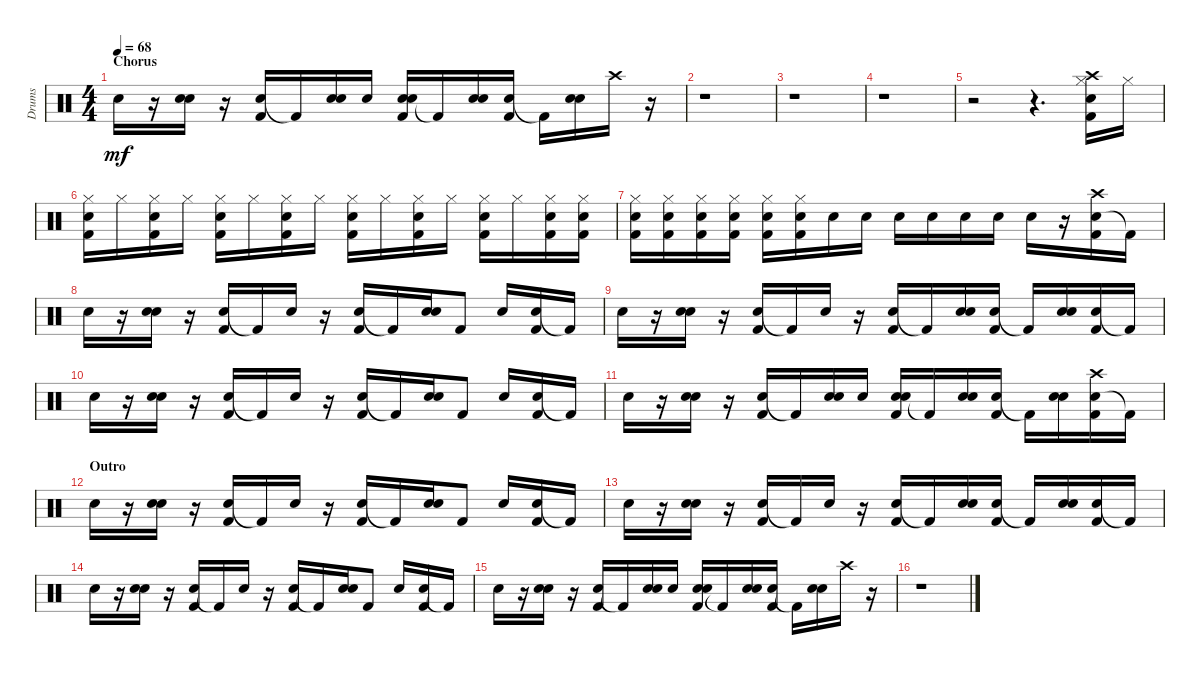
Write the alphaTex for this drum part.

\track ("Drums" "Drums") {instrument percussion}
\staff {score}
\articulation defaults
\ts (4 4)
\section ("" "Chorus")
\tempo 68
\clef neutral
\ks aminor "Hand Clap (hit)".16{dy mf}
r.16 ("Hand Clap (hit)" "Electric Snare (hit)").16 r.16 ("Hand Clap (hit)" "Kick (hit) 2").16 "Kick (hit) 2"{t}.16 ("Hand Clap (hit)" "Electric Snare (hit)").16 "Electric Snare (hit)".16 ("Hand Clap (hit)" "Electric Snare (hit)" "Kick (hit) 2").16 "Kick (hit) 2"{t}.16 ("Electric Snare (hit)" "Hand Clap (hit)").16 ("Electric Snare (hit)" "Kick (hit) 2").16 "Kick (hit) 2"{t}.16 ("Hand Clap (hit)" "Electric Snare (hit)").16 "Crash high (hit)".16 r.16 |
r.1 |
r.1 |
r.1 |
r.2 r.4{d} ("Kick (hit) 2" "Hand Clap (hit)" "Hi-Hat (closed)" "Crash high (hit)").16 "Hi-Hat (closed)".16 |
("Kick (hit) 2" "Hand Clap (hit)" "Hi-Hat (closed)").16 "Hi-Hat (closed)".16 ("Kick (hit) 2" "Hand Clap (hit)" "Hi-Hat (closed)").16 "Hi-Hat (closed)".16 ("Kick (hit) 2" "Hand Clap (hit)" "Hi-Hat (closed)").16 "Hi-Hat (closed)".16 ("Kick (hit) 2" "Hand Clap (hit)" "Hi-Hat (closed)").16 "Hi-Hat (closed)".16 ("Kick (hit) 2" "Hand Clap (hit)" "Hi-Hat (closed)").16 "Hi-Hat (closed)".16 ("Kick (hit) 2" "Hand Clap (hit)" "Hi-Hat (closed)").16 "Hi-Hat (closed)".16 ("Kick (hit) 2" "Hand Clap (hit)" "Hi-Hat (closed)").16 "Hi-Hat (closed)".16 ("Kick (hit) 2" "Hand Clap (hit)" "Hi-Hat (closed)").16 ("Kick (hit) 2" "Hand Clap (hit)" "Hi-Hat (closed)").16 |
("Kick (hit) 2" "Hand Clap (hit)" "Hi-Hat (closed)").16 ("Kick (hit) 2" "Hand Clap (hit)" "Hi-Hat (closed)").16 ("Kick (hit) 2" "Hand Clap (hit)" "Hi-Hat (closed)").16 ("Kick (hit) 2" "Hand Clap (hit)" "Hi-Hat (closed)").16 ("Kick (hit) 2" "Hand Clap (hit)" "Hi-Hat (closed)").16 ("Kick (hit) 2" "Hand Clap (hit)" "Hi-Hat (closed)").16 "Electric Snare (hit)".16 "Electric Snare (hit)".16 "Electric Snare (hit)".16 "Electric Snare (hit)".16 "Electric Snare (hit)".16 "Electric Snare (hit)".16 "Electric Snare (hit)".16 r.16 ("Hand Clap (hit)" "Crash high (hit)" "Kick (hit) 2").16 "Kick (hit) 2"{t}.16 |
"Hand Clap (hit)".16 r.16 ("Hand Clap (hit)" "Electric Snare (hit)").16 r.16 ("Hand Clap (hit)" "Kick (hit) 2").16 "Kick (hit) 2"{t}.16 "Hand Clap (hit)".16 r.16 ("Hand Clap (hit)" "Kick (hit) 2").16 "Kick (hit) 2"{t}.16 ("Hand Clap (hit)" "Electric Snare (hit)").16 "Kick (hit) 2".8 "Hand Clap (hit)".16 ("Hand Clap (hit)" "Kick (hit) 2").16 "Kick (hit) 2"{t}.16 |
"Hand Clap (hit)".16 r.16 ("Hand Clap (hit)" "Electric Snare (hit)").16 r.16 ("Hand Clap (hit)" "Kick (hit) 2").16 "Kick (hit) 2"{t}.16 "Hand Clap (hit)".16 r.16 ("Hand Clap (hit)" "Kick (hit) 2").16 "Kick (hit) 2"{t}.16 ("Hand Clap (hit)" "Electric Snare (hit)").16 ("Electric Snare (hit)" "Kick (hit) 2").16 "Kick (hit) 2"{t}.16 ("Hand Clap (hit)" "Electric Snare (hit)").16 ("Hand Clap (hit)" "Kick (hit) 2").16 "Kick (hit) 2"{t}.16 |
"Hand Clap (hit)".16 r.16 ("Hand Clap (hit)" "Electric Snare (hit)").16 r.16 ("Hand Clap (hit)" "Kick (hit) 2").16 "Kick (hit) 2"{t}.16 "Hand Clap (hit)".16 r.16 ("Hand Clap (hit)" "Kick (hit) 2").16 "Kick (hit) 2"{t}.16 ("Hand Clap (hit)" "Electric Snare (hit)").16 "Kick (hit) 2".8 "Hand Clap (hit)".16 ("Hand Clap (hit)" "Kick (hit) 2").16 "Kick (hit) 2"{t}.16 |
"Hand Clap (hit)".16 r.16 ("Hand Clap (hit)" "Electric Snare (hit)").16 r.16 ("Hand Clap (hit)" "Kick (hit) 2").16 "Kick (hit) 2"{t}.16 ("Hand Clap (hit)" "Electric Snare (hit)").16 "Electric Snare (hit)".16 ("Hand Clap (hit)" "Electric Snare (hit)" "Kick (hit) 2").16 "Kick (hit) 2"{t}.16 ("Electric Snare (hit)" "Hand Clap (hit)").16 ("Electric Snare (hit)" "Kick (hit) 2").16 "Kick (hit) 2"{t}.16 ("Hand Clap (hit)" "Electric Snare (hit)").16 ("Hand Clap (hit)" "Crash high (hit)" "Kick (hit) 2").16 "Kick (hit) 2"{t}.16 |
\section ("" "Outro")
"Hand Clap (hit)".16 r.16 ("Hand Clap (hit)" "Electric Snare (hit)").16 r.16 ("Hand Clap (hit)" "Kick (hit) 2").16 "Kick (hit) 2"{t}.16 "Hand Clap (hit)".16 r.16 ("Hand Clap (hit)" "Kick (hit) 2").16 "Kick (hit) 2"{t}.16 ("Hand Clap (hit)" "Electric Snare (hit)").16 "Kick (hit) 2".8 "Hand Clap (hit)".16 ("Hand Clap (hit)" "Kick (hit) 2").16 "Kick (hit) 2"{t}.16 |
"Hand Clap (hit)".16 r.16 ("Hand Clap (hit)" "Electric Snare (hit)").16 r.16 ("Hand Clap (hit)" "Kick (hit) 2").16 "Kick (hit) 2"{t}.16 "Hand Clap (hit)".16 r.16 ("Hand Clap (hit)" "Kick (hit) 2").16 "Kick (hit) 2"{t}.16 ("Hand Clap (hit)" "Electric Snare (hit)").16 ("Electric Snare (hit)" "Kick (hit) 2").16 "Kick (hit) 2"{t}.16 ("Hand Clap (hit)" "Electric Snare (hit)").16 ("Hand Clap (hit)" "Kick (hit) 2").16 "Kick (hit) 2"{t}.16 |
"Hand Clap (hit)".16 r.16 ("Hand Clap (hit)" "Electric Snare (hit)").16 r.16 ("Hand Clap (hit)" "Kick (hit) 2").16 "Kick (hit) 2"{t}.16 "Hand Clap (hit)".16 r.16 ("Hand Clap (hit)" "Kick (hit) 2").16 "Kick (hit) 2"{t}.16 ("Hand Clap (hit)" "Electric Snare (hit)").16 "Kick (hit) 2".8 "Hand Clap (hit)".16 ("Hand Clap (hit)" "Kick (hit) 2").16 "Kick (hit) 2"{t}.16 |
"Hand Clap (hit)".16 r.16 ("Hand Clap (hit)" "Electric Snare (hit)").16 r.16 ("Hand Clap (hit)" "Kick (hit) 2").16 "Kick (hit) 2"{t}.16 ("Hand Clap (hit)" "Electric Snare (hit)").16 "Electric Snare (hit)".16 ("Hand Clap (hit)" "Electric Snare (hit)" "Kick (hit) 2").16 "Kick (hit) 2"{t}.16 ("Electric Snare (hit)" "Hand Clap (hit)").16 ("Electric Snare (hit)" "Kick (hit) 2").16 "Kick (hit) 2"{t}.16 ("Hand Clap (hit)" "Electric Snare (hit)").16 "Crash high (hit)".16 r.16 |
r.1
